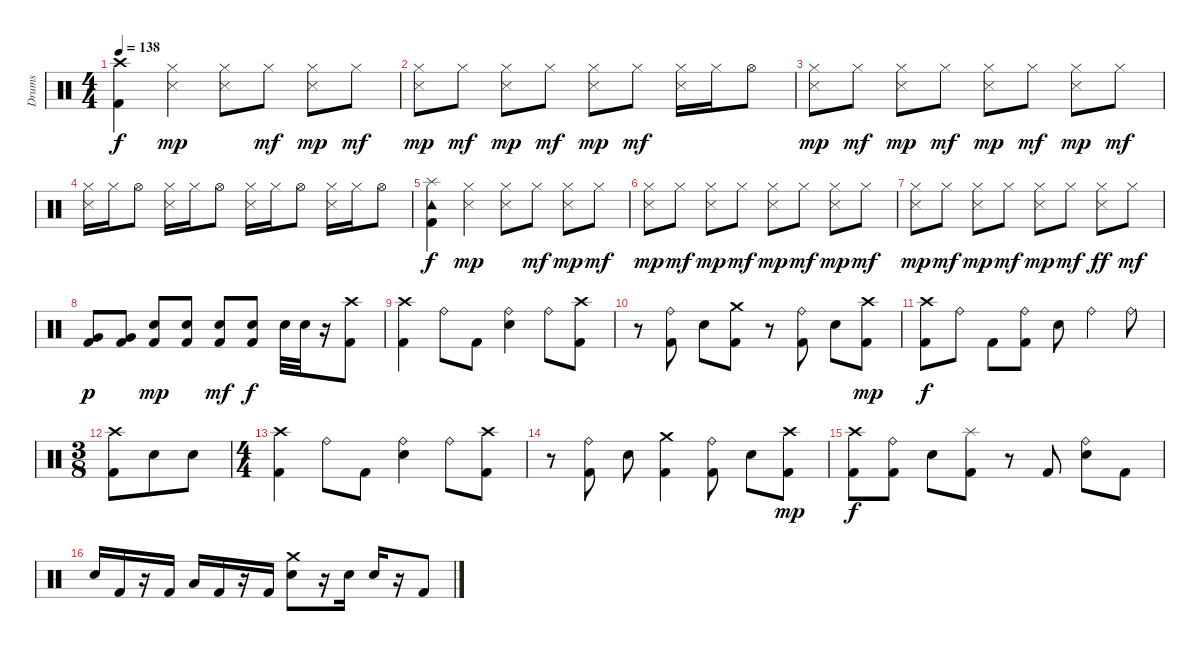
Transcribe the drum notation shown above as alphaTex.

\track ("Drums" "Drums") {instrument percussion}
\staff {score}
\articulation defaults
\ts (4 4)
\tempo 138
\clef neutral
\ks c
("Crash high (hit)" "Kick (hit) 2").4{dy f} ("Snare (side stick) 3" "Hi-Hat (closed)").4{dy mp} ("Snare (side stick) 3" "Hi-Hat (closed)").8 "Hi-Hat (closed)".8{dy mf} ("Snare (side stick) 3" "Hi-Hat (closed)").8{dy mp} "Hi-Hat (closed)".8{dy mf} |
("Hi-Hat (closed)" "Snare (side stick) 3").8{dy mp} "Hi-Hat (closed)".8{dy mf} ("Snare (side stick) 3" "Hi-Hat (closed)").8{dy mp} "Hi-Hat (closed)".8{dy mf} ("Hi-Hat (closed)" "Snare (side stick) 3").8{dy mp} "Hi-Hat (closed)".8{dy mf} ("Snare (side stick) 3" "Hi-Hat (closed)").16 "Hi-Hat (closed)".16 "Hi-Hat (open)".8 |
("Snare (side stick) 3" "Hi-Hat (closed)").8{dy mp} "Hi-Hat (closed)".8{dy mf} ("Snare (side stick) 3" "Hi-Hat (closed)").8{dy mp} "Hi-Hat (closed)".8{dy mf} ("Snare (side stick) 3" "Hi-Hat (closed)").8{dy mp} "Hi-Hat (closed)".8{dy mf} ("Snare (side stick) 3" "Hi-Hat (closed)").8{dy mp} "Hi-Hat (closed)".8{dy mf} |
("Hi-Hat (closed)" "Snare (side stick) 3").16 "Hi-Hat (closed)".16 "Hi-Hat (open)".8 ("Hi-Hat (closed)" "Snare (side stick) 3").16 "Hi-Hat (closed)".16 "Hi-Hat (open)".8 ("Hi-Hat (closed)" "Snare (side stick) 3").16 "Hi-Hat (closed)".16 "Hi-Hat (open)".8 ("Hi-Hat (closed)" "Snare (side stick) 3").16 "Hi-Hat (closed)".16 "Hi-Hat (open)".8 |
("Tambourine (hit)" "Splash (hit)" "Kick (hit) 2").4{dy f} ("Snare (side stick) 3" "Hi-Hat (closed)").4{dy mp} ("Snare (side stick) 3" "Hi-Hat (closed)").8 "Hi-Hat (closed)".8{dy mf} ("Snare (side stick) 3" "Hi-Hat (closed)").8{dy mp} "Hi-Hat (closed)".8{dy mf} |
("Hi-Hat (closed)" "Snare (side stick) 3").8{dy mp} "Hi-Hat (closed)".8{dy mf} ("Snare (side stick) 3" "Hi-Hat (closed)").8{dy mp} "Hi-Hat (closed)".8{dy mf} ("Hi-Hat (closed)" "Snare (side stick) 3").8{dy mp} "Hi-Hat (closed)".8{dy mf} ("Snare (side stick) 3" "Hi-Hat (closed)").8{dy mp} "Hi-Hat (closed)".8{dy mf} |
("Snare (side stick) 3" "Hi-Hat (closed)").8{dy mp} "Hi-Hat (closed)".8{dy mf} ("Snare (side stick) 3" "Hi-Hat (closed)").8{dy mp} "Hi-Hat (closed)".8{dy mf} ("Snare (side stick) 3" "Hi-Hat (closed)").8{dy mp} "Hi-Hat (closed)".8{dy mf} ("Snare (side stick) 3" "Hi-Hat (closed)").8{dy ff} "Hi-Hat (closed)".8{dy mf} |
("Kick (hit) 2" "Very Low Tom (hit)").8{dy p} ("Very Low Tom (hit)" "Kick (hit) 2").8 ("Electric Snare (hit)" "Kick (hit) 2").8{dy mp} ("Electric Snare (hit)" "Kick (hit) 2").8 ("Electric Snare (hit)" "Kick (hit) 2").8{dy mf} ("Electric Snare (hit)" "Kick (hit) 2").8{dy f} "Electric Snare (hit)".32 "Electric Snare (hit)".32 r.16 ("Crash high (hit)" "Kick (hit) 2").8 |
("Kick (hit) 2" "Crash high (hit)").4 "Ride (bell)".8 "Kick (hit) 2".8 ("Ride (bell)" "Electric Snare (hit)").4 "Ride (bell)".8 ("Kick (hit) 2" "Crash high (hit)").8 |
r.8 ("Kick (hit) 2" "Ride (bell)").8 "Electric Snare (hit)".8 ("Kick (hit) 2" "Crash medium (hit)").8 r.8 ("Kick (hit) 2" "Ride (bell)").8 "Electric Snare (hit)".8 ("Kick (hit) 2" "Crash high (hit)").8{dy mp} |
("Crash high (hit)" "Kick (hit) 2").8{dy f} "Ride (bell)".8 "Kick (hit) 2".8 ("Kick (hit) 2" "Ride (bell)").8 "Electric Snare (hit)".8 "Ride (bell)".4 "Ride (bell)".8 |
\ts (3 8)
("Crash high (hit)" "Kick (hit) 2").8 "Electric Snare (hit)".8 "Electric Snare (hit)".8 |
\ts (4 4)
("Crash high (hit)" "Kick (hit) 2").4 "Ride (bell)".8 "Kick (hit) 2".8 ("Ride (bell)" "Electric Snare (hit)").4 "Ride (bell)".8 ("Kick (hit) 2" "Crash high (hit)").8 |
r.8 ("Kick (hit) 2" "Ride (bell)").8 "Electric Snare (hit)".8 ("Kick (hit) 2" "Crash medium (hit)").4 ("Kick (hit) 2" "Ride (bell)").8 "Electric Snare (hit)".8 ("Kick (hit) 2" "Crash high (hit)").8{dy mp} |
("Kick (hit) 2" "Crash high (hit)").8{dy f} ("Kick (hit) 2" "Ride (bell)").8 "Electric Snare (hit)".8 ("Kick (hit) 2" "Splash (hit)").8 r.8 "Kick (hit) 2".8 ("Electric Snare (hit)" "Ride (bell)").8 "Kick (hit) 2".8 |
"Electric Snare (hit)".16 "Kick (hit) 2".16 r.16 "Kick (hit) 2".16 "Low Tom (hit)".16 "Kick (hit) 2".16 r.16 "Kick (hit) 2".16 ("Electric Snare (hit)" "Crash medium (hit)").8 r.16 "Electric Snare (hit)".16 "Electric Snare (hit)".16 r.16 "Kick (hit) 2".8
